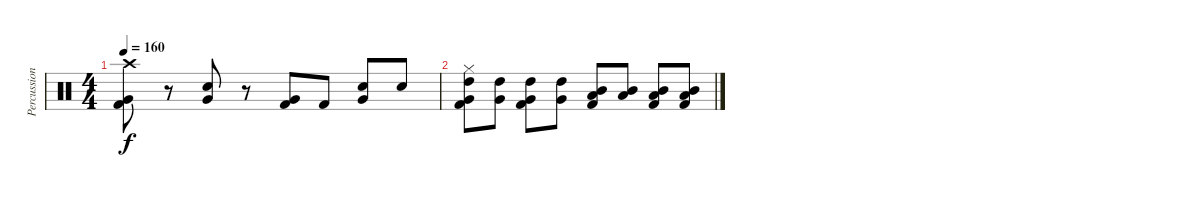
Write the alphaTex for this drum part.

\track ("Percussion" "Percussion") {instrument percussion}
\staff {score}
\articulation defaults
\ts (4 4)
\tempo 160
\clef neutral
\ks c
("Crash high (hit)" "Very Low Tom (hit)" "Kick (hit) 2").8{dy f} r.8 ("Snare (hit) 2" "Very Low Tom (hit)").8 r.8 ("Very Low Tom (hit)" "Kick (hit) 2").8 "Kick (hit) 2".8 ("Snare (hit) 2" "Very Low Tom (hit)").8 "Snare (hit) 2".8 |
("Hi-Hat (closed)" "High Tom (hit)" "Very Low Tom (hit)" "Kick (hit) 2").8 ("High Tom (hit)" "Very Low Tom (hit)").8 ("High Tom (hit)" "Very Low Tom (hit)" "Kick (hit) 2").8 ("High Tom (hit)" "Very Low Tom (hit)").8 ("Mid Tom (hit)" "Low Floor Tom (hit)" "Kick (hit) 2").8 ("Mid Tom (hit)" "Low Floor Tom (hit)").8 ("Mid Tom (hit)" "Low Floor Tom (hit)" "Kick (hit) 2").8 ("Mid Tom (hit)" "Low Floor Tom (hit)" "Kick (hit) 2").8
